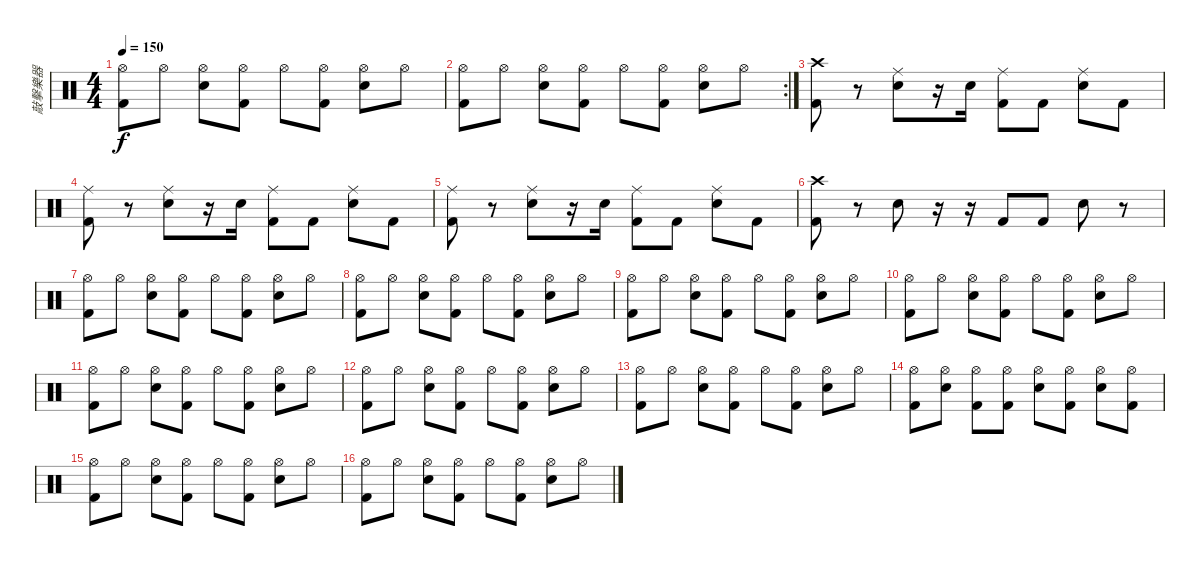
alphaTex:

\track ("敲擊樂器" "敲擊樂器") {instrument percussion}
\staff {score}
\articulation defaults
\ts (4 4)
\tempo 150
\clef neutral
\ks c
("Hi-Hat (open)" "Kick (hit) 2").8{dy f} "Hi-Hat (open)".8 ("Hi-Hat (open)" "Electric Snare (hit)").8 ("Hi-Hat (open)" "Kick (hit) 2").8 "Hi-Hat (open)".8 ("Hi-Hat (open)" "Kick (hit) 2").8 ("Hi-Hat (open)" "Electric Snare (hit)").8 "Hi-Hat (open)".8 |
\rc 2
("Hi-Hat (open)" "Kick (hit) 2").8 "Hi-Hat (open)".8 ("Hi-Hat (open)" "Electric Snare (hit)").8 ("Hi-Hat (open)" "Kick (hit) 2").8 "Hi-Hat (open)".8 ("Hi-Hat (open)" "Kick (hit) 2").8 ("Hi-Hat (open)" "Electric Snare (hit)").8 "Hi-Hat (open)".8 |
("Crash high (hit)" "Kick (hit) 2").8 r.8 ("Ride (middle)" "Electric Snare (hit)").8 r.16 "Electric Snare (hit)".16 ("Ride (middle)" "Kick (hit) 2").8 "Kick (hit) 2".8 ("Ride (middle)" "Electric Snare (hit)").8 "Kick (hit) 2".8 |
("Ride (middle)" "Kick (hit) 2").8 r.8 ("Ride (middle)" "Electric Snare (hit)").8 r.16 "Electric Snare (hit)".16 ("Ride (middle)" "Kick (hit) 2").8 "Kick (hit) 2".8 ("Ride (middle)" "Electric Snare (hit)").8 "Kick (hit) 2".8 |
("Ride (middle)" "Kick (hit) 2").8 r.8 ("Ride (middle)" "Electric Snare (hit)").8 r.16 "Electric Snare (hit)".16 ("Ride (middle)" "Kick (hit) 2").8 "Kick (hit) 2".8 ("Ride (middle)" "Electric Snare (hit)").8 "Kick (hit) 2".8 |
("Crash high (hit)" "Kick (hit) 2").8 r.8 "Electric Snare (hit)".8 r.16 r.16 "Kick (hit) 2".8 "Kick (hit) 2".8 "Electric Snare (hit)".8 r.8 |
("Hi-Hat (open)" "Kick (hit) 2").8 "Hi-Hat (open)".8 ("Hi-Hat (open)" "Electric Snare (hit)").8 ("Hi-Hat (open)" "Kick (hit) 2").8 "Hi-Hat (open)".8 ("Hi-Hat (open)" "Kick (hit) 2").8 ("Hi-Hat (open)" "Electric Snare (hit)").8 "Hi-Hat (open)".8 |
("Hi-Hat (open)" "Kick (hit) 2").8 "Hi-Hat (open)".8 ("Hi-Hat (open)" "Electric Snare (hit)").8 ("Hi-Hat (open)" "Kick (hit) 2").8 "Hi-Hat (open)".8 ("Hi-Hat (open)" "Kick (hit) 2").8 ("Hi-Hat (open)" "Electric Snare (hit)").8 "Hi-Hat (open)".8 |
("Hi-Hat (open)" "Kick (hit) 2").8 "Hi-Hat (open)".8 ("Hi-Hat (open)" "Electric Snare (hit)").8 ("Hi-Hat (open)" "Kick (hit) 2").8 "Hi-Hat (open)".8 ("Hi-Hat (open)" "Kick (hit) 2").8 ("Hi-Hat (open)" "Electric Snare (hit)").8 "Hi-Hat (open)".8 |
("Hi-Hat (open)" "Kick (hit) 2").8 "Hi-Hat (open)".8 ("Hi-Hat (open)" "Electric Snare (hit)").8 ("Hi-Hat (open)" "Kick (hit) 2").8 "Hi-Hat (open)".8 ("Hi-Hat (open)" "Kick (hit) 2").8 ("Hi-Hat (open)" "Electric Snare (hit)").8 "Hi-Hat (open)".8 |
("Hi-Hat (open)" "Kick (hit) 2").8 "Hi-Hat (open)".8 ("Hi-Hat (open)" "Electric Snare (hit)").8 ("Hi-Hat (open)" "Kick (hit) 2").8 "Hi-Hat (open)".8 ("Hi-Hat (open)" "Kick (hit) 2").8 ("Hi-Hat (open)" "Electric Snare (hit)").8 "Hi-Hat (open)".8 |
("Hi-Hat (open)" "Kick (hit) 2").8 "Hi-Hat (open)".8 ("Hi-Hat (open)" "Electric Snare (hit)").8 ("Hi-Hat (open)" "Kick (hit) 2").8 "Hi-Hat (open)".8 ("Hi-Hat (open)" "Kick (hit) 2").8 ("Hi-Hat (open)" "Electric Snare (hit)").8 "Hi-Hat (open)".8 |
("Hi-Hat (open)" "Kick (hit) 2").8 "Hi-Hat (open)".8 ("Hi-Hat (open)" "Electric Snare (hit)").8 ("Hi-Hat (open)" "Kick (hit) 2").8 "Hi-Hat (open)".8 ("Hi-Hat (open)" "Kick (hit) 2").8 ("Hi-Hat (open)" "Electric Snare (hit)").8 "Hi-Hat (open)".8 |
("Hi-Hat (open)" "Kick (hit) 2").8 ("Hi-Hat (open)" "Electric Snare (hit)").8 ("Hi-Hat (open)" "Kick (hit) 2").8 ("Hi-Hat (open)" "Kick (hit) 2").8 ("Hi-Hat (open)" "Electric Snare (hit)").8 ("Hi-Hat (open)" "Kick (hit) 2").8 ("Hi-Hat (open)" "Electric Snare (hit)").8 ("Hi-Hat (open)" "Kick (hit) 2").8 |
("Hi-Hat (open)" "Kick (hit) 2").8 "Hi-Hat (open)".8 ("Hi-Hat (open)" "Electric Snare (hit)").8 ("Hi-Hat (open)" "Kick (hit) 2").8 "Hi-Hat (open)".8 ("Hi-Hat (open)" "Kick (hit) 2").8 ("Hi-Hat (open)" "Electric Snare (hit)").8 "Hi-Hat (open)".8 |
("Hi-Hat (open)" "Kick (hit) 2").8 "Hi-Hat (open)".8 ("Hi-Hat (open)" "Electric Snare (hit)").8 ("Hi-Hat (open)" "Kick (hit) 2").8 "Hi-Hat (open)".8 ("Hi-Hat (open)" "Kick (hit) 2").8 ("Hi-Hat (open)" "Electric Snare (hit)").8 "Hi-Hat (open)".8
